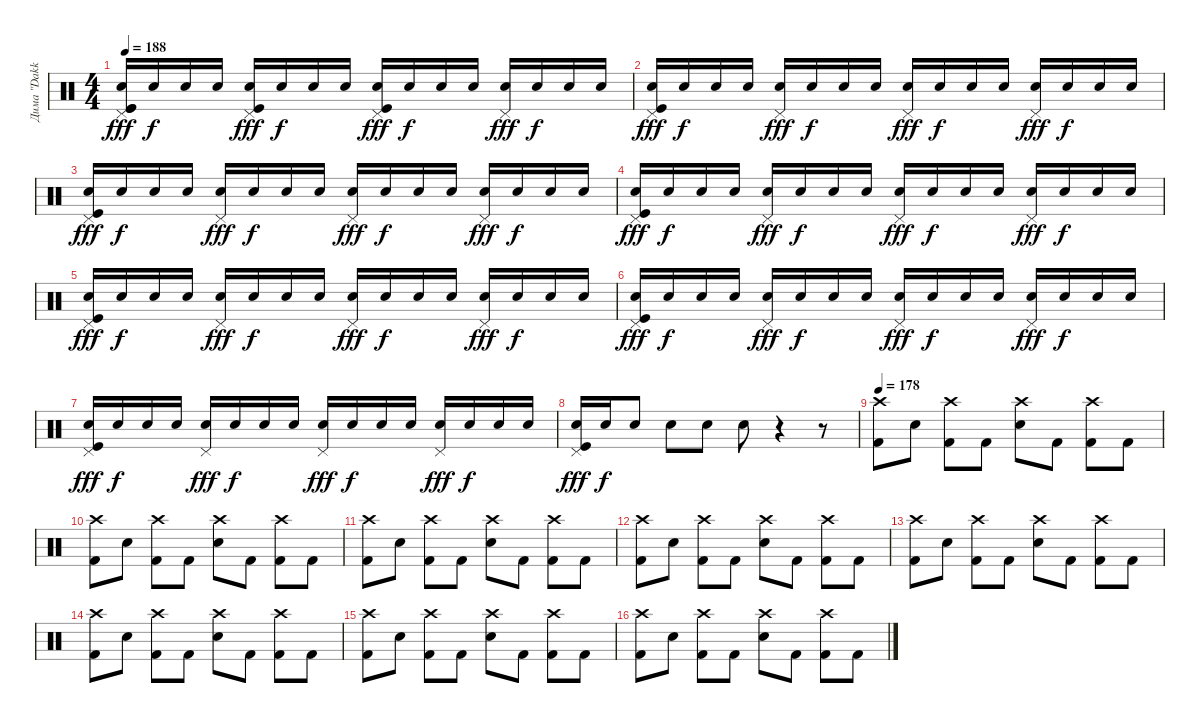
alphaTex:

\track ("Дима \"Dakkar\" Кеменов" "Дима \"Dakk") {instrument percussion}
\staff
\articulation defaults
\ts (4 4)
\tempo 188
\clef neutral
\ks c
("Kick (hit)" "Pedal Hi-Hat (hit)" "Kick (hit)" "Snare (hit) 2").16{dy fff} "Snare (hit) 2".16{dy f} "Snare (hit) 2".16 "Snare (hit) 2".16 ("Kick (hit)" "Pedal Hi-Hat (hit)" "Snare (hit) 2").16{dy fff} "Snare (hit) 2".16{dy f} "Snare (hit) 2".16 "Snare (hit) 2".16 ("Kick (hit)" "Pedal Hi-Hat (hit)" "Snare (hit) 2").16{dy fff} "Snare (hit) 2".16{dy f} "Snare (hit) 2".16 "Snare (hit) 2".16 ("Pedal Hi-Hat (hit)" "Snare (hit) 2").16{dy fff} "Snare (hit) 2".16{dy f} "Snare (hit) 2".16 "Snare (hit) 2".16 |
("Pedal Hi-Hat (hit)" "Kick (hit)" "Snare (hit) 2").16{dy fff} "Snare (hit) 2".16{dy f} "Snare (hit) 2".16 "Snare (hit) 2".16 ("Pedal Hi-Hat (hit)" "Snare (hit) 2").16{dy fff} "Snare (hit) 2".16{dy f} "Snare (hit) 2".16 "Snare (hit) 2".16 ("Pedal Hi-Hat (hit)" "Snare (hit) 2").16{dy fff} "Snare (hit) 2".16{dy f} "Snare (hit) 2".16 "Snare (hit) 2".16 ("Pedal Hi-Hat (hit)" "Snare (hit) 2").16{dy fff} "Snare (hit) 2".16{dy f} "Snare (hit) 2".16 "Snare (hit) 2".16 |
("Pedal Hi-Hat (hit)" "Kick (hit)" "Snare (hit) 2").16{dy fff} "Snare (hit) 2".16{dy f} "Snare (hit) 2".16 "Snare (hit) 2".16 ("Pedal Hi-Hat (hit)" "Snare (hit) 2").16{dy fff} "Snare (hit) 2".16{dy f} "Snare (hit) 2".16 "Snare (hit) 2".16 ("Pedal Hi-Hat (hit)" "Snare (hit) 2").16{dy fff} "Snare (hit) 2".16{dy f} "Snare (hit) 2".16 "Snare (hit) 2".16 ("Pedal Hi-Hat (hit)" "Snare (hit) 2").16{dy fff} "Snare (hit) 2".16{dy f} "Snare (hit) 2".16 "Snare (hit) 2".16 |
("Pedal Hi-Hat (hit)" "Kick (hit)" "Snare (hit) 2").16{dy fff} "Snare (hit) 2".16{dy f} "Snare (hit) 2".16 "Snare (hit) 2".16 ("Pedal Hi-Hat (hit)" "Snare (hit) 2").16{dy fff} "Snare (hit) 2".16{dy f} "Snare (hit) 2".16 "Snare (hit) 2".16 ("Pedal Hi-Hat (hit)" "Snare (hit) 2").16{dy fff} "Snare (hit) 2".16{dy f} "Snare (hit) 2".16 "Snare (hit) 2".16 ("Pedal Hi-Hat (hit)" "Snare (hit) 2").16{dy fff} "Snare (hit) 2".16{dy f} "Snare (hit) 2".16 "Snare (hit) 2".16 |
("Pedal Hi-Hat (hit)" "Kick (hit)" "Snare (hit) 2").16{dy fff} "Snare (hit) 2".16{dy f} "Snare (hit) 2".16 "Snare (hit) 2".16 ("Pedal Hi-Hat (hit)" "Snare (hit) 2").16{dy fff} "Snare (hit) 2".16{dy f} "Snare (hit) 2".16 "Snare (hit) 2".16 ("Pedal Hi-Hat (hit)" "Snare (hit) 2").16{dy fff} "Snare (hit) 2".16{dy f} "Snare (hit) 2".16 "Snare (hit) 2".16 ("Pedal Hi-Hat (hit)" "Snare (hit) 2").16{dy fff} "Snare (hit) 2".16{dy f} "Snare (hit) 2".16 "Snare (hit) 2".16 |
("Pedal Hi-Hat (hit)" "Kick (hit)" "Snare (hit) 2").16{dy fff} "Snare (hit) 2".16{dy f} "Snare (hit) 2".16 "Snare (hit) 2".16 ("Pedal Hi-Hat (hit)" "Snare (hit) 2").16{dy fff} "Snare (hit) 2".16{dy f} "Snare (hit) 2".16 "Snare (hit) 2".16 ("Pedal Hi-Hat (hit)" "Snare (hit) 2").16{dy fff} "Snare (hit) 2".16{dy f} "Snare (hit) 2".16 "Snare (hit) 2".16 ("Pedal Hi-Hat (hit)" "Snare (hit) 2").16{dy fff} "Snare (hit) 2".16{dy f} "Snare (hit) 2".16 "Snare (hit) 2".16 |
("Pedal Hi-Hat (hit)" "Kick (hit)" "Snare (hit) 2").16{dy fff} "Snare (hit) 2".16{dy f} "Snare (hit) 2".16 "Snare (hit) 2".16 ("Pedal Hi-Hat (hit)" "Snare (hit) 2").16{dy fff} "Snare (hit) 2".16{dy f} "Snare (hit) 2".16 "Snare (hit) 2".16 ("Pedal Hi-Hat (hit)" "Snare (hit) 2").16{dy fff} "Snare (hit) 2".16{dy f} "Snare (hit) 2".16 "Snare (hit) 2".16 ("Pedal Hi-Hat (hit)" "Snare (hit) 2").16{dy fff} "Snare (hit) 2".16{dy f} "Snare (hit) 2".16 "Snare (hit) 2".16 |
("Pedal Hi-Hat (hit)" "Kick (hit)" "Snare (hit) 2").16{dy fff} "Snare (hit) 2".16{dy f} "Electric Snare (hit)".8 "Electric Snare (hit)".8 "Electric Snare (hit)".8 "Electric Snare (hit)".8 r.4 r.8 |
\tempo 178
("Kick (hit) 2" "Crash high (hit)").8 "Snare (hit) 2".8 ("Kick (hit) 2" "Crash high (hit)").8 "Kick (hit) 2".8 ("Snare (hit) 2" "Crash high (hit)").8 "Kick (hit) 2".8 ("Kick (hit) 2" "Crash high (hit)").8 "Kick (hit) 2".8 |
("Kick (hit) 2" "Crash high (hit)").8 "Snare (hit) 2".8 ("Kick (hit) 2" "Crash high (hit)").8 "Kick (hit) 2".8 ("Snare (hit) 2" "Crash high (hit)").8 "Kick (hit) 2".8 ("Kick (hit) 2" "Crash high (hit)").8 "Kick (hit) 2".8 |
("Kick (hit) 2" "Crash high (hit)").8 "Snare (hit) 2".8 ("Kick (hit) 2" "Crash high (hit)").8 "Kick (hit) 2".8 ("Snare (hit) 2" "Crash high (hit)").8 "Kick (hit) 2".8 ("Kick (hit) 2" "Crash high (hit)").8 "Kick (hit) 2".8 |
("Kick (hit) 2" "Crash high (hit)").8 "Snare (hit) 2".8 ("Kick (hit) 2" "Crash high (hit)").8 "Kick (hit) 2".8 ("Snare (hit) 2" "Crash high (hit)").8 "Kick (hit) 2".8 ("Kick (hit) 2" "Crash high (hit)").8 "Kick (hit) 2".8 |
("Kick (hit) 2" "Crash high (hit)").8 "Snare (hit) 2".8 ("Kick (hit) 2" "Crash high (hit)").8 "Kick (hit) 2".8 ("Snare (hit) 2" "Crash high (hit)").8 "Kick (hit) 2".8 ("Kick (hit) 2" "Crash high (hit)").8 "Kick (hit) 2".8 |
("Kick (hit) 2" "Crash high (hit)").8 "Snare (hit) 2".8 ("Kick (hit) 2" "Crash high (hit)").8 "Kick (hit) 2".8 ("Snare (hit) 2" "Crash high (hit)").8 "Kick (hit) 2".8 ("Kick (hit) 2" "Crash high (hit)").8 "Kick (hit) 2".8 |
("Kick (hit) 2" "Crash high (hit)").8 "Snare (hit) 2".8 ("Kick (hit) 2" "Crash high (hit)").8 "Kick (hit) 2".8 ("Snare (hit) 2" "Crash high (hit)").8 "Kick (hit) 2".8 ("Kick (hit) 2" "Crash high (hit)").8 "Kick (hit) 2".8 |
("Kick (hit) 2" "Crash high (hit)").8 "Snare (hit) 2".8 ("Kick (hit) 2" "Crash high (hit)").8 "Kick (hit) 2".8 ("Snare (hit) 2" "Crash high (hit)").8 "Kick (hit) 2".8 ("Kick (hit) 2" "Crash high (hit)").8 "Kick (hit) 2".8
